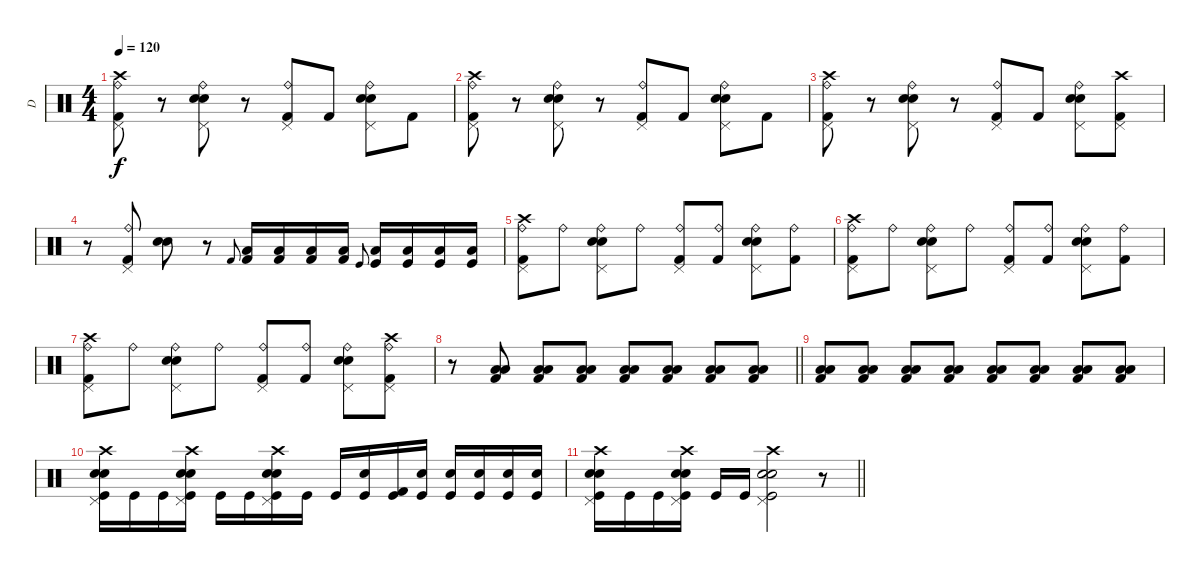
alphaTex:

\track ("D" "D") {instrument percussion}
\staff {score}
\articulation defaults
\ts (4 4)
\tempo 120
\clef neutral
\ks c
("Crash high (hit)" "Kick (hit) 2" "Ride (bell)" "Pedal Hi-Hat (hit)").8{dy f} r.8 ("Electric Snare (hit)" "Electric Snare (hit)" "Ride (bell)" "Pedal Hi-Hat (hit)").8 r.8 ("Kick (hit) 2" "Ride (bell)" "Pedal Hi-Hat (hit)").8 "Kick (hit) 2".8 ("Electric Snare (hit)" "Electric Snare (hit)" "Ride (bell)" "Pedal Hi-Hat (hit)").8 "Kick (hit) 2".8 |
("Crash high (hit)" "Kick (hit) 2" "Ride (bell)" "Pedal Hi-Hat (hit)").8 r.8 ("Electric Snare (hit)" "Electric Snare (hit)" "Ride (bell)" "Pedal Hi-Hat (hit)").8 r.8 ("Kick (hit) 2" "Ride (bell)" "Pedal Hi-Hat (hit)").8 "Kick (hit) 2".8 ("Electric Snare (hit)" "Electric Snare (hit)" "Ride (bell)" "Pedal Hi-Hat (hit)").8 "Kick (hit) 2".8 |
("Crash high (hit)" "Kick (hit) 2" "Ride (bell)" "Pedal Hi-Hat (hit)").8 r.8 ("Electric Snare (hit)" "Electric Snare (hit)" "Ride (bell)" "Pedal Hi-Hat (hit)").8 r.8 ("Kick (hit) 2" "Ride (bell)" "Pedal Hi-Hat (hit)").8 "Kick (hit) 2".8 ("Electric Snare (hit)" "Electric Snare (hit)" "Ride (bell)" "Pedal Hi-Hat (hit)").8 ("Crash high (hit)" "Kick (hit) 2" "Pedal Hi-Hat (hit)").8 |
r.8 ("Kick (hit) 2" "Ride (bell)" "Pedal Hi-Hat (hit)").8 ("Electric Snare (hit)" "Electric Snare (hit)").8 r.8 "Kick (hit) 2".8{gr onbeat} ("Kick (hit) 2" "Low Floor Tom (hit)").16 ("Kick (hit) 2" "Low Floor Tom (hit)").16 ("Kick (hit) 2" "Low Floor Tom (hit)").16 ("Kick (hit) 2" "Low Floor Tom (hit)").16 "Kick (hit)".8{gr onbeat} ("Kick (hit)" "Low Floor Tom (hit)").16 ("Kick (hit)" "Low Floor Tom (hit)").16 ("Kick (hit)" "Low Floor Tom (hit)").16 ("Kick (hit)" "Low Floor Tom (hit)").16 |
("Crash high (hit)" "Kick (hit) 2" "Ride (bell)" "Pedal Hi-Hat (hit)").8 "Ride (bell)".8 ("Electric Snare (hit)" "Electric Snare (hit)" "Ride (bell)" "Pedal Hi-Hat (hit)").8 "Ride (bell)".8 ("Kick (hit) 2" "Ride (bell)" "Pedal Hi-Hat (hit)").8 ("Kick (hit) 2" "Ride (bell)").8 ("Electric Snare (hit)" "Electric Snare (hit)" "Ride (bell)" "Pedal Hi-Hat (hit)").8 ("Kick (hit) 2" "Ride (bell)").8 |
("Crash high (hit)" "Kick (hit) 2" "Ride (bell)" "Pedal Hi-Hat (hit)").8 "Ride (bell)".8 ("Electric Snare (hit)" "Electric Snare (hit)" "Ride (bell)" "Pedal Hi-Hat (hit)").8 "Ride (bell)".8 ("Kick (hit) 2" "Ride (bell)" "Pedal Hi-Hat (hit)").8 ("Kick (hit) 2" "Ride (bell)").8 ("Electric Snare (hit)" "Electric Snare (hit)" "Ride (bell)" "Pedal Hi-Hat (hit)").8 ("Kick (hit) 2" "Ride (bell)").8 |
("Crash high (hit)" "Kick (hit) 2" "Ride (bell)" "Pedal Hi-Hat (hit)").8 "Ride (bell)".8 ("Electric Snare (hit)" "Electric Snare (hit)" "Ride (bell)" "Pedal Hi-Hat (hit)").8 "Ride (bell)".8 ("Kick (hit) 2" "Ride (bell)" "Pedal Hi-Hat (hit)").8 ("Kick (hit) 2" "Ride (bell)").8 ("Electric Snare (hit)" "Electric Snare (hit)" "Ride (bell)" "Pedal Hi-Hat (hit)").8 ("Crash high (hit)" "Kick (hit) 2" "Ride (bell)" "Pedal Hi-Hat (hit)").8 |
\barLineRight lightlight
r.8 ("Low Tom (hit)" "Low Floor Tom (hit)" "Kick (hit) 2").8 ("Low Tom (hit)" "Low Floor Tom (hit)" "Kick (hit) 2").8 ("Low Tom (hit)" "Low Floor Tom (hit)" "Kick (hit) 2").8 ("Low Tom (hit)" "Low Floor Tom (hit)" "Kick (hit) 2").8 ("Low Tom (hit)" "Low Floor Tom (hit)" "Kick (hit) 2").8 ("Low Tom (hit)" "Low Floor Tom (hit)" "Kick (hit) 2").8 ("Low Tom (hit)" "Low Floor Tom (hit)" "Kick (hit) 2").8 |
("Low Tom (hit)" "Low Floor Tom (hit)" "Kick (hit) 2").8 ("Low Tom (hit)" "Low Floor Tom (hit)" "Kick (hit) 2").8 ("Low Tom (hit)" "Low Floor Tom (hit)" "Kick (hit) 2").8 ("Low Tom (hit)" "Low Floor Tom (hit)" "Kick (hit) 2").8 ("Low Tom (hit)" "Low Floor Tom (hit)" "Kick (hit) 2").8 ("Low Tom (hit)" "Low Floor Tom (hit)" "Kick (hit) 2").8 ("Low Tom (hit)" "Low Floor Tom (hit)" "Kick (hit) 2").8 ("Low Tom (hit)" "Low Floor Tom (hit)" "Kick (hit) 2").8 |
("Crash high (hit)" "Electric Snare (hit)" "Electric Snare (hit)" "Kick (hit)" "Pedal Hi-Hat (hit)").16 "Kick (hit)".16 "Kick (hit)".16 ("Crash high (hit)" "Electric Snare (hit)" "Electric Snare (hit)" "Kick (hit)" "Pedal Hi-Hat (hit)").16 "Kick (hit)".16 "Kick (hit)".16 ("Crash high (hit)" "Electric Snare (hit)" "Electric Snare (hit)" "Kick (hit)" "Pedal Hi-Hat (hit)").16 "Kick (hit)".16 "Kick (hit)".16 ("Electric Snare (hit)" "Kick (hit)").16 ("Kick (hit) 2" "Kick (hit)").16 ("Electric Snare (hit)" "Kick (hit)").16 ("Electric Snare (hit)" "Kick (hit)").16 ("Electric Snare (hit)" "Kick (hit)").16 ("Electric Snare (hit)" "Kick (hit)").16 ("Electric Snare (hit)" "Kick (hit)").16 |
\barLineRight lightlight
("Crash high (hit)" "Electric Snare (hit)" "Electric Snare (hit)" "Kick (hit)" "Pedal Hi-Hat (hit)").16 "Kick (hit)".16 "Kick (hit)".16 ("Crash high (hit)" "Electric Snare (hit)" "Electric Snare (hit)" "Kick (hit)" "Pedal Hi-Hat (hit)").16 "Kick (hit)".16 "Kick (hit)".16 ("Crash high (hit)" "Electric Snare (hit)" "Electric Snare (hit)" "Kick (hit)" "Pedal Hi-Hat (hit)").2 r.8
